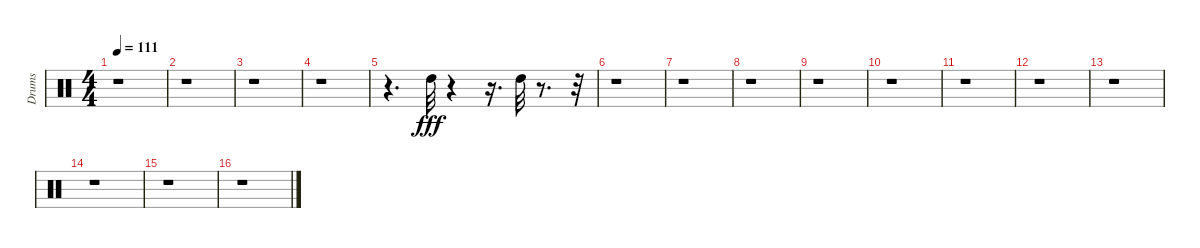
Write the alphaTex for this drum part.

\track ("Drums" "Drums") {instrument percussion}
\staff {score}
\articulation defaults
\ts (4 4)
\tempo 111
\clef neutral
\ks c
r.1{dy fff} |
r.1 |
r.1 |
r.1 |
r.4{d} "High Tom (hit)".32 r.4 r.16{d} "High Tom (hit)".32 r.8{d} r.32 |
r.1 |
r.1 |
r.1 |
r.1 |
r.1 |
r.1 |
r.1 |
r.1 |
r.1 |
r.1 |
r.1
